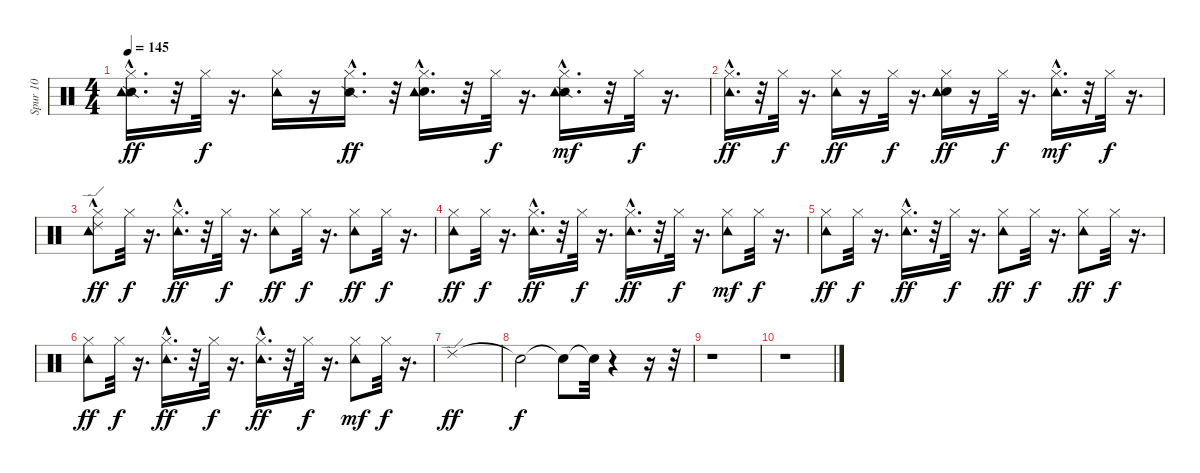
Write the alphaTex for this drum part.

\track ("Spur 10" "Spur 10") {instrument percussion}
\staff {score}
\articulation defaults
\ts (4 4)
\tempo 145
\clef neutral
\ks c
("Snare (side stick) 2"{hac} "Tambourine (hit)"{hac} "Hi-Hat (closed)").16{d dy ff} r.32 "Hi-Hat (closed)".32{dy f} r.16{d} ("Tambourine (hit)" "Hi-Hat (closed)").16 r.16 ("Snare (side stick) 2"{hac} "Hi-Hat (closed)").16{d dy ff} r.32 ("Electric Snare (hit)"{hac} "Tambourine (hit)"{hac} "Hi-Hat (closed)").16{d} r.32 "Hi-Hat (closed)".32{dy f} r.16{d} ("Snare (side stick) 2"{hac} "Tambourine (hit)"{hac} "Hi-Hat (closed)").16{d dy mf} r.32 "Hi-Hat (closed)".32{dy f} r.16{d} |
("Tambourine (hit)"{hac} "Hi-Hat (closed)").16{d dy ff} r.32 "Hi-Hat (closed)".32{dy f} r.16{d} ("Tambourine (hit)" "Hi-Hat (closed)").16{dy ff} r.16 "Hi-Hat (closed)".32{dy f} r.16{d} ("Electric Snare (hit)" "Tambourine (hit)" "Hi-Hat (closed)").16{dy ff} r.16 "Hi-Hat (closed)".32{dy f} r.16{d} ("Tambourine (hit)"{hac} "Hi-Hat (closed)").16{d dy mf} r.32 "Hi-Hat (closed)".32{dy f} r.16{d} |
("Ride (edge) 2"{hac} "Tambourine (hit)" "Hi-Hat (closed)").8{dy ff} "Hi-Hat (closed)".32{dy f} r.16{d} ("Tambourine (hit)"{hac} "Hi-Hat (closed)").16{d dy ff} r.32 "Hi-Hat (closed)".32{dy f} r.16{d} ("Tambourine (hit)" "Hi-Hat (closed)").8{dy ff} "Hi-Hat (closed)".32{dy f} r.16{d} ("Tambourine (hit)" "Hi-Hat (closed)").8{dy ff} "Hi-Hat (closed)".32{dy f} r.16{d} |
("Tambourine (hit)" "Hi-Hat (closed)").8{dy ff} "Hi-Hat (closed)".32{dy f} r.16{d} ("Tambourine (hit)"{hac} "Hi-Hat (closed)").16{d dy ff} r.32 "Hi-Hat (closed)".32{dy f} r.16{d} ("Tambourine (hit)"{hac} "Hi-Hat (closed)").16{d dy ff} r.32 "Hi-Hat (closed)".32{dy f} r.16{d} ("Tambourine (hit)" "Hi-Hat (closed)").8{dy mf} "Hi-Hat (closed)".32{dy f} r.16{d} |
("Tambourine (hit)" "Hi-Hat (closed)").8{dy ff} "Hi-Hat (closed)".32{dy f} r.16{d} ("Tambourine (hit)"{hac} "Hi-Hat (closed)").16{d dy ff} r.32 "Hi-Hat (closed)".32{dy f} r.16{d} ("Tambourine (hit)" "Hi-Hat (closed)").8{dy ff} "Hi-Hat (closed)".32{dy f} r.16{d} ("Tambourine (hit)" "Hi-Hat (closed)").8{dy ff} "Hi-Hat (closed)".32{dy f} r.16{d} |
("Tambourine (hit)" "Hi-Hat (closed)").8{dy ff} "Hi-Hat (closed)".32{dy f} r.16{d} ("Tambourine (hit)"{hac} "Hi-Hat (closed)").16{d dy ff} r.32 "Hi-Hat (closed)".32{dy f} r.16{d} ("Tambourine (hit)"{hac} "Hi-Hat (closed)").16{d dy ff} r.32 "Hi-Hat (closed)".32{dy f} r.16{d} ("Tambourine (hit)" "Hi-Hat (closed)").8{dy mf} "Hi-Hat (closed)".32{dy f} r.16{d} |
"Ride (edge) 2".1{dy ff} |
"Snare (hit)"{t}.2{dy f} "Snare (hit)"{t}.8 "Snare (hit)"{t}.32 r.4 r.16 r.32 |
r.1 |
r.1
